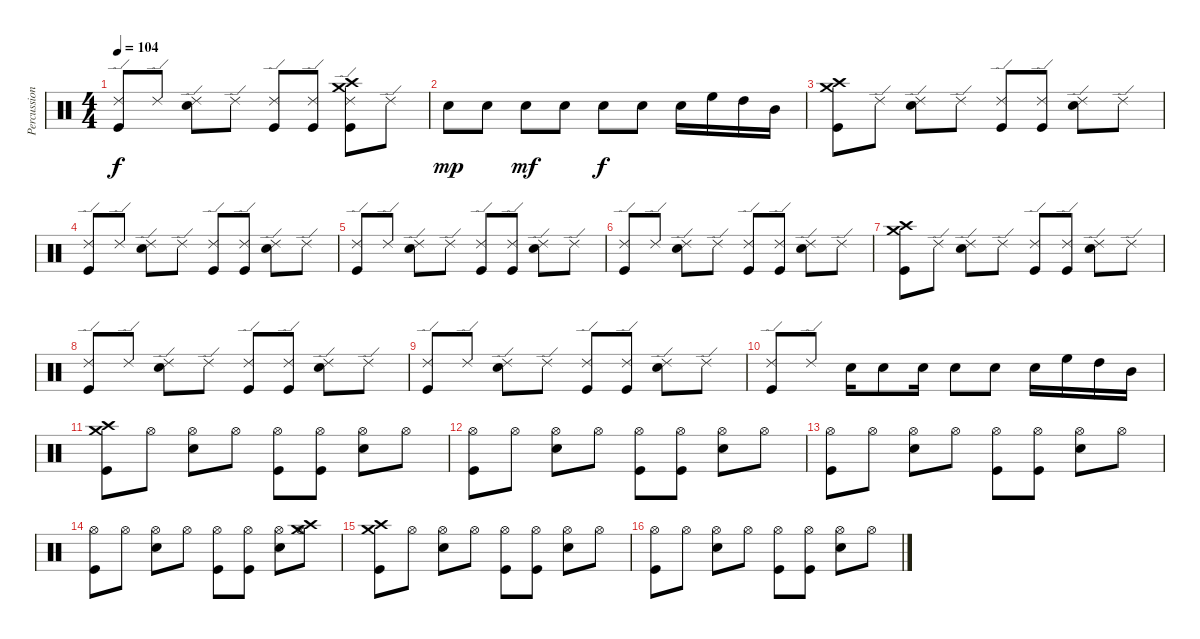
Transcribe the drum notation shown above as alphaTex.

\track ("Percussion" "Percussion") {instrument percussion}
\staff {score}
\articulation defaults
\ts (4 4)
\tempo 104
\clef neutral
\ks c
("Ride (edge) 2" "Kick (hit)").8{dy f} "Ride (edge) 2".8 ("Ride (edge) 2" "Snare (hit) 2").8 "Ride (edge) 2".8 ("Ride (edge) 2" "Kick (hit)").8 ("Ride (edge) 2" "Kick (hit)").8 ("Ride (edge) 2" "Crash medium (hit)" "Crash high (hit)" "Kick (hit)").8 "Ride (edge) 2".8 |
"Snare (hit) 2".8{dy mp} "Snare (hit) 2".8 "Snare (hit) 2".8{dy mf} "Snare (hit) 2".8 "Snare (hit) 2".8{dy f} "Snare (hit) 2".8 "Snare (hit) 2".16 "High Floor Tom (hit)".16 "High Tom (hit)".16 "Mid Tom (hit)".16 |
("Crash high (hit)" "Crash medium (hit)" "Kick (hit)").8 "Ride (edge) 2".8 ("Ride (edge) 2" "Snare (hit) 2").8 "Ride (edge) 2".8 ("Ride (edge) 2" "Kick (hit)").8 ("Ride (edge) 2" "Kick (hit)").8 ("Ride (edge) 2" "Snare (hit) 2").8 "Ride (edge) 2".8 |
("Ride (edge) 2" "Kick (hit)").8 "Ride (edge) 2".8 ("Ride (edge) 2" "Snare (hit) 2").8 "Ride (edge) 2".8 ("Ride (edge) 2" "Kick (hit)").8 ("Ride (edge) 2" "Kick (hit)").8 ("Ride (edge) 2" "Snare (hit) 2").8 "Ride (edge) 2".8 |
("Ride (edge) 2" "Kick (hit)").8 "Ride (edge) 2".8 ("Ride (edge) 2" "Snare (hit) 2").8 "Ride (edge) 2".8 ("Ride (edge) 2" "Kick (hit)").8 ("Ride (edge) 2" "Kick (hit)").8 ("Ride (edge) 2" "Snare (hit) 2").8 "Ride (edge) 2".8 |
("Ride (edge) 2" "Kick (hit)").8 "Ride (edge) 2".8 ("Ride (edge) 2" "Snare (hit) 2").8 "Ride (edge) 2".8 ("Ride (edge) 2" "Kick (hit)").8 ("Ride (edge) 2" "Kick (hit)").8 ("Ride (edge) 2" "Snare (hit) 2").8 "Ride (edge) 2".8 |
("Crash high (hit)" "Crash medium (hit)" "Kick (hit)").8 "Ride (edge) 2".8 ("Ride (edge) 2" "Snare (hit) 2").8 "Ride (edge) 2".8 ("Ride (edge) 2" "Kick (hit)").8 ("Ride (edge) 2" "Kick (hit)").8 ("Ride (edge) 2" "Snare (hit) 2").8 "Ride (edge) 2".8 |
("Ride (edge) 2" "Kick (hit)").8 "Ride (edge) 2".8 ("Ride (edge) 2" "Snare (hit) 2").8 "Ride (edge) 2".8 ("Ride (edge) 2" "Kick (hit)").8 ("Ride (edge) 2" "Kick (hit)").8 ("Ride (edge) 2" "Snare (hit) 2").8 "Ride (edge) 2".8 |
("Ride (edge) 2" "Kick (hit)").8 "Ride (edge) 2".8 ("Ride (edge) 2" "Snare (hit) 2").8 "Ride (edge) 2".8 ("Ride (edge) 2" "Kick (hit)").8 ("Ride (edge) 2" "Kick (hit)").8 ("Ride (edge) 2" "Snare (hit) 2").8 "Ride (edge) 2".8 |
("Ride (edge) 2" "Kick (hit)").8 "Ride (edge) 2".8 "Snare (hit) 2".16 "Snare (hit) 2".8 "Snare (hit) 2".16 "Snare (hit) 2".8 "Snare (hit) 2".8 "Snare (hit) 2".16 "High Floor Tom (hit)".16 "High Tom (hit)".16 "Mid Tom (hit)".16 |
("Crash high (hit)" "Crash medium (hit)" "Kick (hit)").8 "Hi-Hat (open)".8 ("Hi-Hat (open)" "Snare (hit) 2").8 "Hi-Hat (open)".8 ("Hi-Hat (open)" "Kick (hit)").8 ("Hi-Hat (open)" "Kick (hit)").8 ("Hi-Hat (open)" "Snare (hit) 2").8 "Hi-Hat (open)".8 |
("Hi-Hat (open)" "Kick (hit)").8 "Hi-Hat (open)".8 ("Hi-Hat (open)" "Snare (hit) 2").8 "Hi-Hat (open)".8 ("Hi-Hat (open)" "Kick (hit)").8 ("Hi-Hat (open)" "Kick (hit)").8 ("Hi-Hat (open)" "Snare (hit) 2").8 "Hi-Hat (open)".8 |
("Hi-Hat (open)" "Kick (hit)").8 "Hi-Hat (open)".8 ("Hi-Hat (open)" "Snare (hit) 2").8 "Hi-Hat (open)".8 ("Hi-Hat (open)" "Kick (hit)").8 ("Hi-Hat (open)" "Kick (hit)").8 ("Hi-Hat (open)" "Snare (hit) 2").8 "Hi-Hat (open)".8 |
("Hi-Hat (open)" "Kick (hit)").8 "Hi-Hat (open)".8 ("Hi-Hat (open)" "Snare (hit) 2").8 "Hi-Hat (open)".8 ("Hi-Hat (open)" "Kick (hit)").8 ("Hi-Hat (open)" "Kick (hit)").8 ("Hi-Hat (open)" "Snare (hit) 2").8 ("Hi-Hat (open)" "Crash high (hit)" "Crash medium (hit)").8 |
("Crash high (hit)" "Crash medium (hit)" "Kick (hit)").8 "Hi-Hat (open)".8 ("Hi-Hat (open)" "Snare (hit) 2").8 "Hi-Hat (open)".8 ("Hi-Hat (open)" "Kick (hit)").8 ("Hi-Hat (open)" "Kick (hit)").8 ("Hi-Hat (open)" "Snare (hit) 2").8 "Hi-Hat (open)".8 |
("Hi-Hat (open)" "Kick (hit)").8 "Hi-Hat (open)".8 ("Hi-Hat (open)" "Snare (hit) 2").8 "Hi-Hat (open)".8 ("Hi-Hat (open)" "Kick (hit)").8 ("Hi-Hat (open)" "Kick (hit)").8 ("Hi-Hat (open)" "Snare (hit) 2").8 "Hi-Hat (open)".8
